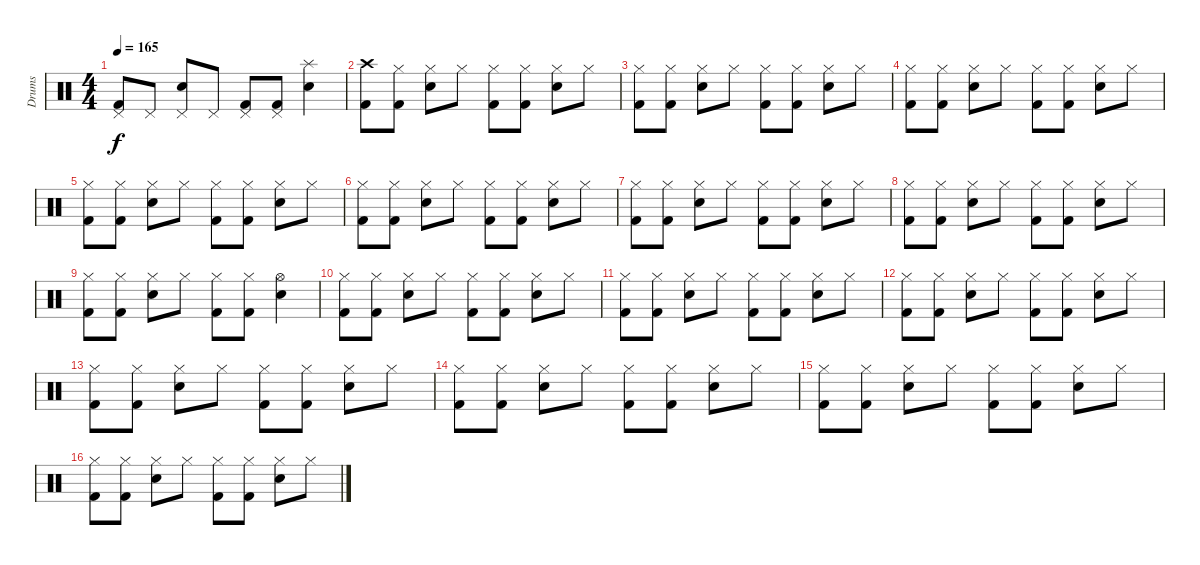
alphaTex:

\track ("Drums" "Drums") {instrument percussion}
\staff {score}
\articulation defaults
\ts (4 4)
\tempo 165
\clef neutral
\ks c
("Pedal Hi-Hat (hit)" "Kick (hit) 2").8{dy f} "Pedal Hi-Hat (hit)".8 ("Pedal Hi-Hat (hit)" "Snare (hit) 2").8 "Pedal Hi-Hat (hit)".8 ("Pedal Hi-Hat (hit)" "Kick (hit) 2").8 ("Pedal Hi-Hat (hit)" "Kick (hit) 2").8 ("Splash (hit)" "Snare (hit) 2").4 |
("Crash high (hit)" "Kick (hit) 2").8 ("Hi-Hat (closed)" "Kick (hit) 2").8 ("Hi-Hat (closed)" "Snare (hit) 2").8 "Hi-Hat (closed)".8 ("Hi-Hat (closed)" "Kick (hit) 2").8 ("Hi-Hat (closed)" "Kick (hit) 2").8 ("Hi-Hat (closed)" "Snare (hit) 2").8 "Hi-Hat (closed)".8 |
("Hi-Hat (closed)" "Kick (hit) 2").8 ("Hi-Hat (closed)" "Kick (hit) 2").8 ("Hi-Hat (closed)" "Snare (hit) 2").8 "Hi-Hat (closed)".8 ("Hi-Hat (closed)" "Kick (hit) 2").8 ("Hi-Hat (closed)" "Kick (hit) 2").8 ("Hi-Hat (closed)" "Snare (hit) 2").8 "Hi-Hat (closed)".8 |
("Hi-Hat (closed)" "Kick (hit) 2").8 ("Hi-Hat (closed)" "Kick (hit) 2").8 ("Hi-Hat (closed)" "Snare (hit) 2").8 "Hi-Hat (closed)".8 ("Hi-Hat (closed)" "Kick (hit) 2").8 ("Hi-Hat (closed)" "Kick (hit) 2").8 ("Hi-Hat (closed)" "Snare (hit) 2").8 "Hi-Hat (closed)".8 |
("Hi-Hat (closed)" "Kick (hit) 2").8 ("Hi-Hat (closed)" "Kick (hit) 2").8 ("Hi-Hat (closed)" "Snare (hit) 2").8 "Hi-Hat (closed)".8 ("Hi-Hat (closed)" "Kick (hit) 2").8 ("Hi-Hat (closed)" "Kick (hit) 2").8 ("Hi-Hat (closed)" "Snare (hit) 2").8 "Hi-Hat (closed)".8 |
("Hi-Hat (closed)" "Kick (hit) 2").8 ("Hi-Hat (closed)" "Kick (hit) 2").8 ("Hi-Hat (closed)" "Snare (hit) 2").8 "Hi-Hat (closed)".8 ("Hi-Hat (closed)" "Kick (hit) 2").8 ("Hi-Hat (closed)" "Kick (hit) 2").8 ("Hi-Hat (closed)" "Snare (hit) 2").8 "Hi-Hat (closed)".8 |
("Hi-Hat (closed)" "Kick (hit) 2").8 ("Hi-Hat (closed)" "Kick (hit) 2").8 ("Hi-Hat (closed)" "Snare (hit) 2").8 "Hi-Hat (closed)".8 ("Hi-Hat (closed)" "Kick (hit) 2").8 ("Hi-Hat (closed)" "Kick (hit) 2").8 ("Hi-Hat (closed)" "Snare (hit) 2").8 "Hi-Hat (closed)".8 |
("Hi-Hat (closed)" "Kick (hit) 2").8 ("Hi-Hat (closed)" "Kick (hit) 2").8 ("Hi-Hat (closed)" "Snare (hit) 2").8 "Hi-Hat (closed)".8 ("Hi-Hat (closed)" "Kick (hit) 2").8 ("Hi-Hat (closed)" "Kick (hit) 2").8 ("Hi-Hat (closed)" "Snare (hit) 2").8 "Hi-Hat (closed)".8 |
("Hi-Hat (closed)" "Kick (hit) 2").8 ("Hi-Hat (closed)" "Kick (hit) 2").8 ("Hi-Hat (closed)" "Snare (hit) 2").8 "Hi-Hat (closed)".8 ("Hi-Hat (closed)" "Kick (hit) 2").8 ("Hi-Hat (closed)" "Kick (hit) 2").8 ("Hi-Hat (open)" "Snare (hit) 2").4 |
("Hi-Hat (closed)" "Kick (hit) 2").8 ("Hi-Hat (closed)" "Kick (hit) 2").8 ("Hi-Hat (closed)" "Snare (hit) 2").8 "Hi-Hat (closed)".8 ("Hi-Hat (closed)" "Kick (hit) 2").8 ("Hi-Hat (closed)" "Kick (hit) 2").8 ("Hi-Hat (closed)" "Snare (hit) 2").8 "Hi-Hat (closed)".8 |
("Hi-Hat (closed)" "Kick (hit) 2").8 ("Hi-Hat (closed)" "Kick (hit) 2").8 ("Hi-Hat (closed)" "Snare (hit) 2").8 "Hi-Hat (closed)".8 ("Hi-Hat (closed)" "Kick (hit) 2").8 ("Hi-Hat (closed)" "Kick (hit) 2").8 ("Hi-Hat (closed)" "Snare (hit) 2").8 "Hi-Hat (closed)".8 |
("Hi-Hat (closed)" "Kick (hit) 2").8 ("Hi-Hat (closed)" "Kick (hit) 2").8 ("Hi-Hat (closed)" "Snare (hit) 2").8 "Hi-Hat (closed)".8 ("Hi-Hat (closed)" "Kick (hit) 2").8 ("Hi-Hat (closed)" "Kick (hit) 2").8 ("Hi-Hat (closed)" "Snare (hit) 2").8 "Hi-Hat (closed)".8 |
("Hi-Hat (closed)" "Kick (hit) 2").8 ("Hi-Hat (closed)" "Kick (hit) 2").8 ("Hi-Hat (closed)" "Snare (hit) 2").8 "Hi-Hat (closed)".8 ("Hi-Hat (closed)" "Kick (hit) 2").8 ("Hi-Hat (closed)" "Kick (hit) 2").8 ("Hi-Hat (closed)" "Snare (hit) 2").8 "Hi-Hat (closed)".8 |
("Hi-Hat (closed)" "Kick (hit) 2").8 ("Hi-Hat (closed)" "Kick (hit) 2").8 ("Hi-Hat (closed)" "Snare (hit) 2").8 "Hi-Hat (closed)".8 ("Hi-Hat (closed)" "Kick (hit) 2").8 ("Hi-Hat (closed)" "Kick (hit) 2").8 ("Hi-Hat (closed)" "Snare (hit) 2").8 "Hi-Hat (closed)".8 |
("Hi-Hat (closed)" "Kick (hit) 2").8 ("Hi-Hat (closed)" "Kick (hit) 2").8 ("Hi-Hat (closed)" "Snare (hit) 2").8 "Hi-Hat (closed)".8 ("Hi-Hat (closed)" "Kick (hit) 2").8 ("Hi-Hat (closed)" "Kick (hit) 2").8 ("Hi-Hat (closed)" "Snare (hit) 2").8 "Hi-Hat (closed)".8 |
("Hi-Hat (closed)" "Kick (hit) 2").8 ("Hi-Hat (closed)" "Kick (hit) 2").8 ("Hi-Hat (closed)" "Snare (hit) 2").8 "Hi-Hat (closed)".8 ("Hi-Hat (closed)" "Kick (hit) 2").8 ("Hi-Hat (closed)" "Kick (hit) 2").8 ("Hi-Hat (closed)" "Snare (hit) 2").8 "Hi-Hat (closed)".8
